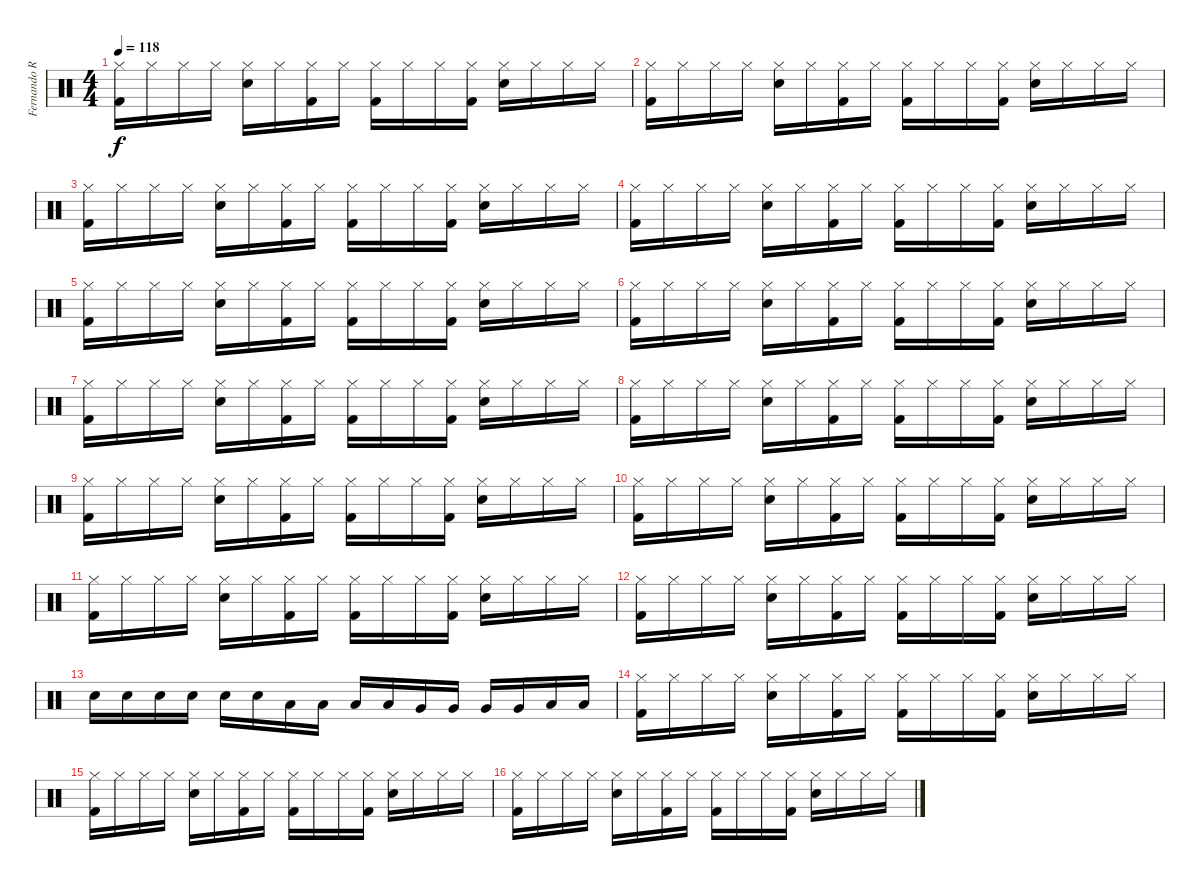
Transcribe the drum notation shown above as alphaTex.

\track ("Fernando Ricciardi" "Fernando R") {instrument percussion}
\staff {score}
\articulation defaults
\ts (4 4)
\tempo 118
\clef neutral
\ks c
("Hi-Hat (closed)" "Kick (hit) 2").16{dy f} "Hi-Hat (closed)".16 "Hi-Hat (closed)".16 "Hi-Hat (closed)".16 ("Hi-Hat (closed)" "Snare (hit) 2").16 "Hi-Hat (closed)".16 ("Hi-Hat (closed)" "Kick (hit) 2").16 "Hi-Hat (closed)".16 ("Hi-Hat (closed)" "Kick (hit) 2").16 "Hi-Hat (closed)".16 "Hi-Hat (closed)".16 ("Hi-Hat (closed)" "Kick (hit) 2").16 ("Hi-Hat (closed)" "Snare (hit) 2").16 "Hi-Hat (closed)".16 "Hi-Hat (closed)".16 "Hi-Hat (closed)".16 |
("Hi-Hat (closed)" "Kick (hit) 2").16 "Hi-Hat (closed)".16 "Hi-Hat (closed)".16 "Hi-Hat (closed)".16 ("Hi-Hat (closed)" "Snare (hit) 2").16 "Hi-Hat (closed)".16 ("Hi-Hat (closed)" "Kick (hit) 2").16 "Hi-Hat (closed)".16 ("Hi-Hat (closed)" "Kick (hit) 2").16 "Hi-Hat (closed)".16 "Hi-Hat (closed)".16 ("Hi-Hat (closed)" "Kick (hit) 2").16 ("Hi-Hat (closed)" "Snare (hit) 2").16 "Hi-Hat (closed)".16 "Hi-Hat (closed)".16 "Hi-Hat (closed)".16 |
("Hi-Hat (closed)" "Kick (hit) 2").16 "Hi-Hat (closed)".16 "Hi-Hat (closed)".16 "Hi-Hat (closed)".16 ("Hi-Hat (closed)" "Snare (hit) 2").16 "Hi-Hat (closed)".16 ("Hi-Hat (closed)" "Kick (hit) 2").16 "Hi-Hat (closed)".16 ("Hi-Hat (closed)" "Kick (hit) 2").16 "Hi-Hat (closed)".16 "Hi-Hat (closed)".16 ("Hi-Hat (closed)" "Kick (hit) 2").16 ("Hi-Hat (closed)" "Snare (hit) 2").16 "Hi-Hat (closed)".16 "Hi-Hat (closed)".16 "Hi-Hat (closed)".16 |
("Hi-Hat (closed)" "Kick (hit) 2").16 "Hi-Hat (closed)".16 "Hi-Hat (closed)".16 "Hi-Hat (closed)".16 ("Hi-Hat (closed)" "Snare (hit) 2").16 "Hi-Hat (closed)".16 ("Hi-Hat (closed)" "Kick (hit) 2").16 "Hi-Hat (closed)".16 ("Hi-Hat (closed)" "Kick (hit) 2").16 "Hi-Hat (closed)".16 "Hi-Hat (closed)".16 ("Hi-Hat (closed)" "Kick (hit) 2").16 ("Hi-Hat (closed)" "Snare (hit) 2").16 "Hi-Hat (closed)".16 "Hi-Hat (closed)".16 "Hi-Hat (closed)".16 |
("Hi-Hat (closed)" "Kick (hit) 2").16 "Hi-Hat (closed)".16 "Hi-Hat (closed)".16 "Hi-Hat (closed)".16 ("Hi-Hat (closed)" "Snare (hit) 2").16 "Hi-Hat (closed)".16 ("Hi-Hat (closed)" "Kick (hit) 2").16 "Hi-Hat (closed)".16 ("Hi-Hat (closed)" "Kick (hit) 2").16 "Hi-Hat (closed)".16 "Hi-Hat (closed)".16 ("Hi-Hat (closed)" "Kick (hit) 2").16 ("Hi-Hat (closed)" "Snare (hit) 2").16 "Hi-Hat (closed)".16 "Hi-Hat (closed)".16 "Hi-Hat (closed)".16 |
("Hi-Hat (closed)" "Kick (hit) 2").16 "Hi-Hat (closed)".16 "Hi-Hat (closed)".16 "Hi-Hat (closed)".16 ("Hi-Hat (closed)" "Snare (hit) 2").16 "Hi-Hat (closed)".16 ("Hi-Hat (closed)" "Kick (hit) 2").16 "Hi-Hat (closed)".16 ("Hi-Hat (closed)" "Kick (hit) 2").16 "Hi-Hat (closed)".16 "Hi-Hat (closed)".16 ("Hi-Hat (closed)" "Kick (hit) 2").16 ("Hi-Hat (closed)" "Snare (hit) 2").16 "Hi-Hat (closed)".16 "Hi-Hat (closed)".16 "Hi-Hat (closed)".16 |
("Hi-Hat (closed)" "Kick (hit) 2").16 "Hi-Hat (closed)".16 "Hi-Hat (closed)".16 "Hi-Hat (closed)".16 ("Hi-Hat (closed)" "Snare (hit) 2").16 "Hi-Hat (closed)".16 ("Hi-Hat (closed)" "Kick (hit) 2").16 "Hi-Hat (closed)".16 ("Hi-Hat (closed)" "Kick (hit) 2").16 "Hi-Hat (closed)".16 "Hi-Hat (closed)".16 ("Hi-Hat (closed)" "Kick (hit) 2").16 ("Hi-Hat (closed)" "Snare (hit) 2").16 "Hi-Hat (closed)".16 "Hi-Hat (closed)".16 "Hi-Hat (closed)".16 |
("Hi-Hat (closed)" "Kick (hit) 2").16 "Hi-Hat (closed)".16 "Hi-Hat (closed)".16 "Hi-Hat (closed)".16 ("Hi-Hat (closed)" "Snare (hit) 2").16 "Hi-Hat (closed)".16 ("Hi-Hat (closed)" "Kick (hit) 2").16 "Hi-Hat (closed)".16 ("Hi-Hat (closed)" "Kick (hit) 2").16 "Hi-Hat (closed)".16 "Hi-Hat (closed)".16 ("Hi-Hat (closed)" "Kick (hit) 2").16 ("Hi-Hat (closed)" "Snare (hit) 2").16 "Hi-Hat (closed)".16 "Hi-Hat (closed)".16 "Hi-Hat (closed)".16 |
("Hi-Hat (closed)" "Kick (hit) 2").16 "Hi-Hat (closed)".16 "Hi-Hat (closed)".16 "Hi-Hat (closed)".16 ("Hi-Hat (closed)" "Snare (hit) 2").16 "Hi-Hat (closed)".16 ("Hi-Hat (closed)" "Kick (hit) 2").16 "Hi-Hat (closed)".16 ("Hi-Hat (closed)" "Kick (hit) 2").16 "Hi-Hat (closed)".16 "Hi-Hat (closed)".16 ("Hi-Hat (closed)" "Kick (hit) 2").16 ("Hi-Hat (closed)" "Snare (hit) 2").16 "Hi-Hat (closed)".16 "Hi-Hat (closed)".16 "Hi-Hat (closed)".16 |
("Hi-Hat (closed)" "Kick (hit) 2").16 "Hi-Hat (closed)".16 "Hi-Hat (closed)".16 "Hi-Hat (closed)".16 ("Hi-Hat (closed)" "Snare (hit) 2").16 "Hi-Hat (closed)".16 ("Hi-Hat (closed)" "Kick (hit) 2").16 "Hi-Hat (closed)".16 ("Hi-Hat (closed)" "Kick (hit) 2").16 "Hi-Hat (closed)".16 "Hi-Hat (closed)".16 ("Hi-Hat (closed)" "Kick (hit) 2").16 ("Hi-Hat (closed)" "Snare (hit) 2").16 "Hi-Hat (closed)".16 "Hi-Hat (closed)".16 "Hi-Hat (closed)".16 |
("Hi-Hat (closed)" "Kick (hit) 2").16 "Hi-Hat (closed)".16 "Hi-Hat (closed)".16 "Hi-Hat (closed)".16 ("Hi-Hat (closed)" "Snare (hit) 2").16 "Hi-Hat (closed)".16 ("Hi-Hat (closed)" "Kick (hit) 2").16 "Hi-Hat (closed)".16 ("Hi-Hat (closed)" "Kick (hit) 2").16 "Hi-Hat (closed)".16 "Hi-Hat (closed)".16 ("Hi-Hat (closed)" "Kick (hit) 2").16 ("Hi-Hat (closed)" "Snare (hit) 2").16 "Hi-Hat (closed)".16 "Hi-Hat (closed)".16 "Hi-Hat (closed)".16 |
("Hi-Hat (closed)" "Kick (hit) 2").16 "Hi-Hat (closed)".16 "Hi-Hat (closed)".16 "Hi-Hat (closed)".16 ("Hi-Hat (closed)" "Snare (hit) 2").16 "Hi-Hat (closed)".16 ("Hi-Hat (closed)" "Kick (hit) 2").16 "Hi-Hat (closed)".16 ("Hi-Hat (closed)" "Kick (hit) 2").16 "Hi-Hat (closed)".16 "Hi-Hat (closed)".16 ("Hi-Hat (closed)" "Kick (hit) 2").16 ("Hi-Hat (closed)" "Snare (hit) 2").16 "Hi-Hat (closed)".16 "Hi-Hat (closed)".16 "Hi-Hat (closed)".16 |
"Snare (hit) 2".16 "Snare (hit) 2".16 "Snare (hit) 2".16 "Snare (hit) 2".16 "Snare (hit) 2".16 "Snare (hit) 2".16 "Low Floor Tom (hit)".16 "Low Floor Tom (hit)".16 "Low Floor Tom (hit)".16 "Low Floor Tom (hit)".16 "Very Low Tom (hit)".16 "Very Low Tom (hit)".16 "Very Low Tom (hit)".16 "Very Low Tom (hit)".16 "Low Tom (hit)".16 "Low Tom (hit)".16 |
("Hi-Hat (closed)" "Kick (hit) 2").16 "Hi-Hat (closed)".16 "Hi-Hat (closed)".16 "Hi-Hat (closed)".16 ("Hi-Hat (closed)" "Snare (hit) 2").16 "Hi-Hat (closed)".16 ("Hi-Hat (closed)" "Kick (hit) 2").16 "Hi-Hat (closed)".16 ("Hi-Hat (closed)" "Kick (hit) 2").16 "Hi-Hat (closed)".16 "Hi-Hat (closed)".16 ("Hi-Hat (closed)" "Kick (hit) 2").16 ("Hi-Hat (closed)" "Snare (hit) 2").16 "Hi-Hat (closed)".16 "Hi-Hat (closed)".16 "Hi-Hat (closed)".16 |
("Hi-Hat (closed)" "Kick (hit) 2").16 "Hi-Hat (closed)".16 "Hi-Hat (closed)".16 "Hi-Hat (closed)".16 ("Hi-Hat (closed)" "Snare (hit) 2").16 "Hi-Hat (closed)".16 ("Hi-Hat (closed)" "Kick (hit) 2").16 "Hi-Hat (closed)".16 ("Hi-Hat (closed)" "Kick (hit) 2").16 "Hi-Hat (closed)".16 "Hi-Hat (closed)".16 ("Hi-Hat (closed)" "Kick (hit) 2").16 ("Hi-Hat (closed)" "Snare (hit) 2").16 "Hi-Hat (closed)".16 "Hi-Hat (closed)".16 "Hi-Hat (closed)".16 |
("Hi-Hat (closed)" "Kick (hit) 2").16 "Hi-Hat (closed)".16 "Hi-Hat (closed)".16 "Hi-Hat (closed)".16 ("Hi-Hat (closed)" "Snare (hit) 2").16 "Hi-Hat (closed)".16 ("Hi-Hat (closed)" "Kick (hit) 2").16 "Hi-Hat (closed)".16 ("Hi-Hat (closed)" "Kick (hit) 2").16 "Hi-Hat (closed)".16 "Hi-Hat (closed)".16 ("Hi-Hat (closed)" "Kick (hit) 2").16 ("Hi-Hat (closed)" "Snare (hit) 2").16 "Hi-Hat (closed)".16 "Hi-Hat (closed)".16 "Hi-Hat (closed)".16
